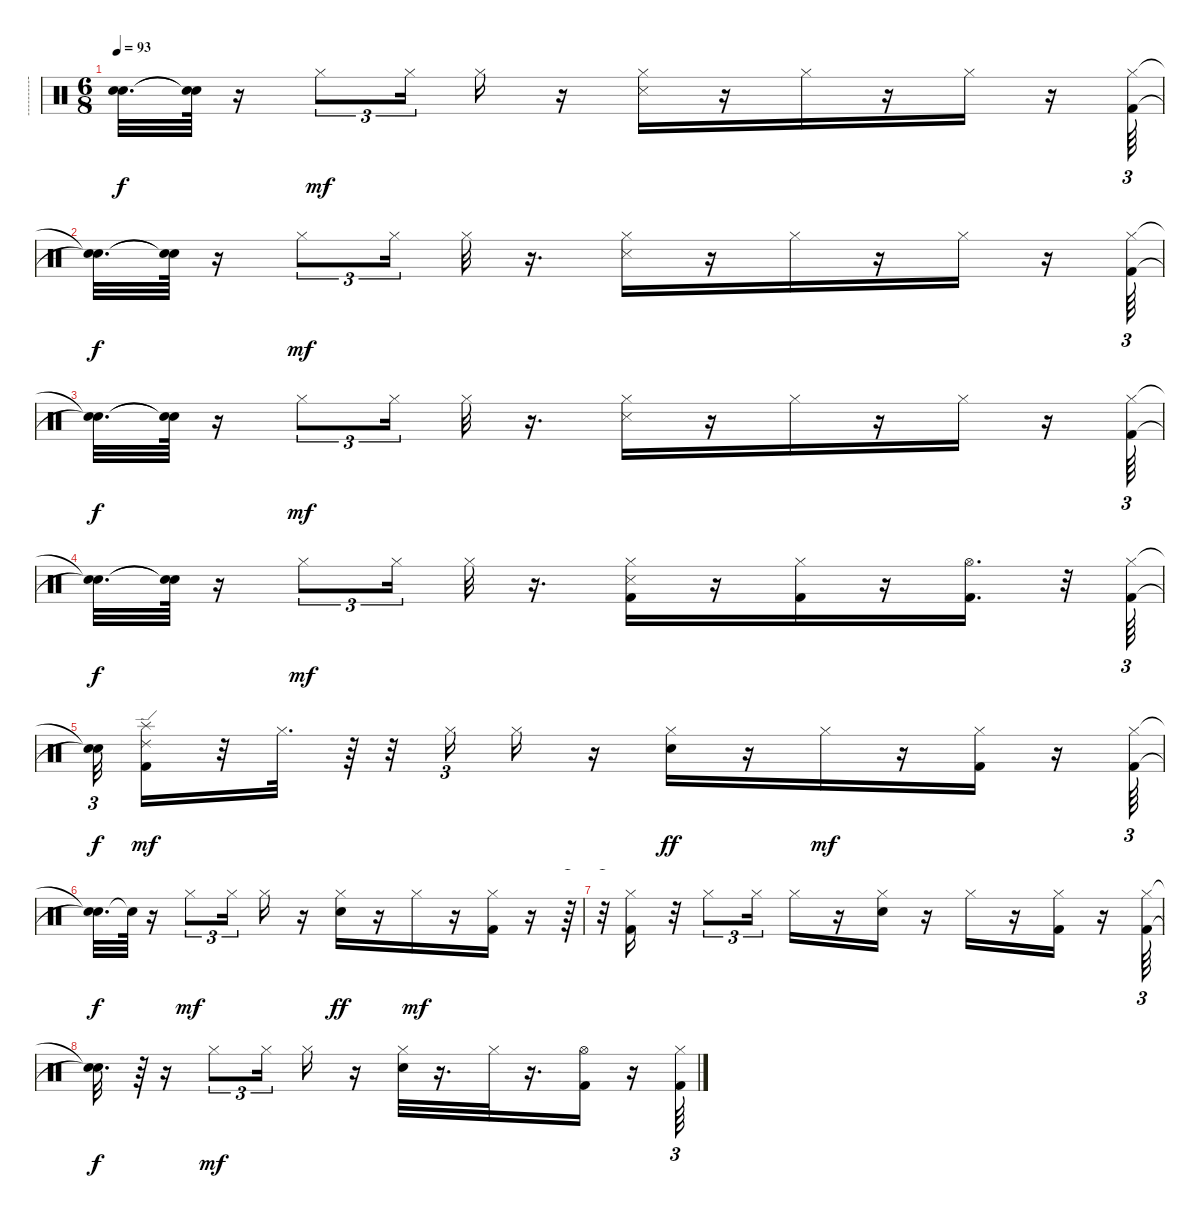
\track ("-----------------------------------" "----------") {instrument percussion}
\staff {score}
\articulation defaults
\ts (6 8)
\tempo 93
\clef neutral
\ks c
("Snare (hit)"{t} "Snare (hit)"{t}).32{d dy f} ("Snare (hit)"{t} "Snare (hit)"{t}).64 r.16 "Hi-Hat (closed)".8{tu (3 2) dy mf} "Hi-Hat (closed)".16{tu (3 2)} "Hi-Hat (closed)".16 r.16 ("Hi-Hat (closed)" "Snare (side stick) 3").16 r.16 "Hi-Hat (closed)".16 r.16 "Hi-Hat (closed)".16 r.16 ("Hi-Hat (closed)" "Kick (hit) 2").64{tu (3 2)} |
("Snare (hit)"{t} "Snare (hit)"{t}).32{d dy f} ("Snare (hit)"{t} "Snare (hit)"{t}).64 r.16 "Hi-Hat (closed)".8{tu (3 2) dy mf} "Hi-Hat (closed)".16{tu (3 2)} "Hi-Hat (closed)".32 r.16{d} ("Hi-Hat (closed)" "Snare (side stick) 3").16 r.16 "Hi-Hat (closed)".16 r.16 "Hi-Hat (closed)".16 r.16 ("Hi-Hat (closed)" "Kick (hit) 2").64{tu (3 2)} |
("Snare (hit)"{t} "Snare (hit)"{t}).32{d dy f} ("Snare (hit)"{t} "Snare (hit)"{t}).64 r.16 "Hi-Hat (closed)".8{tu (3 2) dy mf} "Hi-Hat (closed)".16{tu (3 2)} "Hi-Hat (closed)".32 r.16{d} ("Hi-Hat (closed)" "Snare (side stick) 3").16 r.16 "Hi-Hat (closed)".16 r.16 "Hi-Hat (closed)".16 r.16 ("Hi-Hat (closed)" "Kick (hit) 2").64{tu (3 2)} |
("Snare (hit)"{t} "Snare (hit)"{t}).32{d dy f} ("Snare (hit)"{t} "Snare (hit)"{t}).64 r.16 "Hi-Hat (closed)".8{tu (3 2) dy mf} "Hi-Hat (closed)".16{tu (3 2)} "Hi-Hat (closed)".32 r.16{d} ("Hi-Hat (closed)" "Kick (hit) 2" "Snare (side stick) 3").16 r.16 ("Hi-Hat (closed)" "Kick (hit) 2").16 r.16 ("Hi-Hat (open)" "Kick (hit) 2").16{d} r.32 ("Hi-Hat (closed)" "Kick (hit) 2").64{tu (3 2)} |
("Snare (hit)"{t} "Snare (hit)"{t}).32{tu (3 2) dy f} ("Kick (hit) 2" "Splash (hit)" "Ride (edge) 2").16{dy mf} r.32 "Hi-Hat (closed)".32{d} r.64 r.32 "Hi-Hat (closed)".16{tu (3 2)} "Hi-Hat (closed)".16 r.16 ("Hi-Hat (closed)" "Snare (hit) 2").16{dy ff} r.16 "Hi-Hat (closed)".16{dy mf} r.16 ("Hi-Hat (closed)" "Kick (hit) 2").16 r.16 ("Hi-Hat (closed)" "Kick (hit) 2").64{tu (3 2)} |
("Snare (hit)"{t} "Snare (hit)"{t}).32{d dy f} "Snare (hit)"{t}.64 r.16 "Hi-Hat (closed)".8{tu (3 2) dy mf} "Hi-Hat (closed)".16{tu (3 2)} "Hi-Hat (closed)".16 r.16 ("Hi-Hat (closed)" "Snare (hit) 2").16{dy ff} r.16 "Hi-Hat (closed)".16{dy mf} r.16 ("Hi-Hat (closed)" "Kick (hit) 2").16 r.16 r.64{tu (3 2)} |
r.32{tu (3 2)} ("Hi-Hat (closed)" "Kick (hit) 2").16 r.32 "Hi-Hat (closed)".8{tu (3 2)} "Hi-Hat (closed)".16{tu (3 2)} "Hi-Hat (closed)".16 r.16 ("Hi-Hat (closed)" "Snare (hit) 2").16 r.16 "Hi-Hat (closed)".16 r.16 ("Hi-Hat (closed)" "Kick (hit) 2").16 r.16 ("Hi-Hat (closed)" "Kick (hit) 2").64{tu (3 2)} |
("Snare (hit)"{t} "Snare (hit)"{t}).32{d dy f} r.64 r.16 "Hi-Hat (closed)".8{tu (3 2) dy mf} "Hi-Hat (closed)".16{tu (3 2)} "Hi-Hat (closed)".16 r.16 ("Hi-Hat (closed)" "Snare (hit) 2").32 r.16{d} "Hi-Hat (closed)".32 r.16{d} ("Hi-Hat (open)" "Kick (hit) 2").16 r.16 ("Hi-Hat (closed)" "Kick (hit) 2").64{tu (3 2)}
